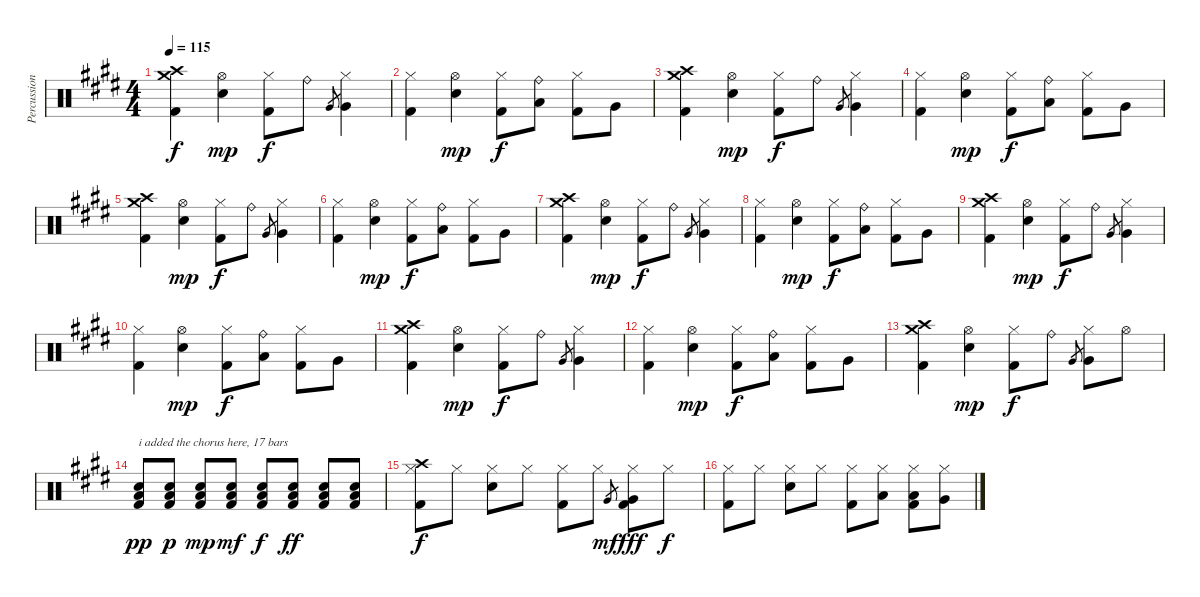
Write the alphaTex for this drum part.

\track ("Percussion" "Percussion") {instrument percussion}
\staff {score}
\articulation defaults
\ts (4 4)
\tempo 115
\clef neutral
\ks c#minor
("Crash high (hit)" "Crash medium (hit)" "Kick (hit) 2").4{dy f} ("Hi-Hat (open)" "Electric Snare (hit)").4{dy mp} ("Hi-Hat (closed)" "Kick (hit) 2").8{dy f} "Ride (bell)".8 "Very Low Tom (hit)".8{gr} ("Hi-Hat (closed)" "Very Low Tom (hit)").4 |
("Hi-Hat (closed)" "Kick (hit) 2").4 ("Hi-Hat (open)" "Electric Snare (hit)").4{dy mp} ("Hi-Hat (closed)" "Kick (hit) 2").8{dy f} ("Ride (bell)" "Low Tom (hit)").8 ("Hi-Hat (closed)" "Kick (hit) 2").8 "Very Low Tom (hit)".8 |
("Crash high (hit)" "Crash medium (hit)" "Kick (hit) 2").4 ("Hi-Hat (open)" "Electric Snare (hit)").4{dy mp} ("Hi-Hat (closed)" "Kick (hit) 2").8{dy f} "Ride (bell)".8 "Very Low Tom (hit)".8{gr} ("Hi-Hat (closed)" "Very Low Tom (hit)").4 |
("Hi-Hat (closed)" "Kick (hit) 2").4 ("Hi-Hat (open)" "Electric Snare (hit)").4{dy mp} ("Hi-Hat (closed)" "Kick (hit) 2").8{dy f} ("Ride (bell)" "Low Tom (hit)").8 ("Hi-Hat (closed)" "Kick (hit) 2").8 "Very Low Tom (hit)".8 |
("Crash high (hit)" "Crash medium (hit)" "Kick (hit) 2").4 ("Hi-Hat (open)" "Electric Snare (hit)").4{dy mp} ("Hi-Hat (closed)" "Kick (hit) 2").8{dy f} "Ride (bell)".8 "Very Low Tom (hit)".8{gr} ("Hi-Hat (closed)" "Very Low Tom (hit)").4 |
("Hi-Hat (closed)" "Kick (hit) 2").4 ("Hi-Hat (open)" "Electric Snare (hit)").4{dy mp} ("Hi-Hat (closed)" "Kick (hit) 2").8{dy f} ("Ride (bell)" "Low Tom (hit)").8 ("Hi-Hat (closed)" "Kick (hit) 2").8 "Very Low Tom (hit)".8 |
("Crash high (hit)" "Crash medium (hit)" "Kick (hit) 2").4 ("Hi-Hat (open)" "Electric Snare (hit)").4{dy mp} ("Hi-Hat (closed)" "Kick (hit) 2").8{dy f} "Ride (bell)".8 "Very Low Tom (hit)".8{gr} ("Hi-Hat (closed)" "Very Low Tom (hit)").4 |
("Hi-Hat (closed)" "Kick (hit) 2").4 ("Hi-Hat (open)" "Electric Snare (hit)").4{dy mp} ("Hi-Hat (closed)" "Kick (hit) 2").8{dy f} ("Ride (bell)" "Low Tom (hit)").8 ("Hi-Hat (closed)" "Kick (hit) 2").8 "Very Low Tom (hit)".8 |
("Crash high (hit)" "Crash medium (hit)" "Kick (hit) 2").4 ("Hi-Hat (open)" "Electric Snare (hit)").4{dy mp} ("Hi-Hat (closed)" "Kick (hit) 2").8{dy f} "Ride (bell)".8 "Very Low Tom (hit)".8{gr} ("Hi-Hat (closed)" "Very Low Tom (hit)").4 |
("Hi-Hat (closed)" "Kick (hit) 2").4 ("Hi-Hat (open)" "Electric Snare (hit)").4{dy mp} ("Hi-Hat (closed)" "Kick (hit) 2").8{dy f} ("Ride (bell)" "Low Tom (hit)").8 ("Hi-Hat (closed)" "Kick (hit) 2").8 "Very Low Tom (hit)".8 |
("Crash high (hit)" "Crash medium (hit)" "Kick (hit) 2").4 ("Hi-Hat (open)" "Electric Snare (hit)").4{dy mp} ("Hi-Hat (closed)" "Kick (hit) 2").8{dy f} "Ride (bell)".8 "Very Low Tom (hit)".8{gr} ("Hi-Hat (closed)" "Very Low Tom (hit)").4 |
("Hi-Hat (closed)" "Kick (hit) 2").4 ("Hi-Hat (open)" "Electric Snare (hit)").4{dy mp} ("Hi-Hat (closed)" "Kick (hit) 2").8{dy f} ("Ride (bell)" "Low Tom (hit)").8 ("Hi-Hat (closed)" "Kick (hit) 2").8 "Very Low Tom (hit)".8 |
("Crash high (hit)" "Crash medium (hit)" "Kick (hit) 2").4 ("Hi-Hat (open)" "Electric Snare (hit)").4{dy mp} ("Hi-Hat (closed)" "Kick (hit) 2").8{dy f} "Ride (bell)".8 "Very Low Tom (hit)".8{gr} ("Hi-Hat (closed)" "Very Low Tom (hit)").8 "Hi-Hat (open)".8 |
("Low Floor Tom (hit)" "Electric Snare (hit)" "Kick (hit) 2").8{txt "i added the chorus here, 17 bars" dy pp} ("Low Floor Tom (hit)" "Electric Snare (hit)" "Kick (hit) 2").8{dy p} ("Low Floor Tom (hit)" "Electric Snare (hit)" "Kick (hit) 2").8{dy mp} ("Low Floor Tom (hit)" "Electric Snare (hit)" "Kick (hit) 2").8{dy mf} ("Low Floor Tom (hit)" "Electric Snare (hit)" "Kick (hit) 2").8{dy f} ("Low Floor Tom (hit)" "Electric Snare (hit)" "Kick (hit) 2").8{dy ff} ("Low Floor Tom (hit)" "Electric Snare (hit)" "Kick (hit) 2").8 ("Low Floor Tom (hit)" "Electric Snare (hit)" "Kick (hit) 2").8 |
("Crash high (hit)" "Hi-Hat (closed)" "Kick (hit) 2").8{dy f} "Hi-Hat (closed)".8 ("Hi-Hat (closed)" "Electric Snare (hit)").8 "Hi-Hat (closed)".8 ("Hi-Hat (closed)" "Kick (hit) 2").8 "Hi-Hat (closed)".8 "Very Low Tom (hit)".8{gr dy mf} ("Hi-Hat (closed)" "Very Low Tom (hit)" "Kick (hit) 2").8{dy fff} "Hi-Hat (closed)".8{dy f} |
("Hi-Hat (closed)" "Kick (hit) 2").8 "Hi-Hat (closed)".8 ("Hi-Hat (closed)" "Electric Snare (hit)").8 "Hi-Hat (closed)".8 ("Hi-Hat (closed)" "Kick (hit) 2").8 ("Hi-Hat (closed)" "Low Tom (hit)").8 ("Hi-Hat (closed)" "Low Floor Tom (hit)" "Kick (hit) 2").8 ("Hi-Hat (closed)" "Very Low Tom (hit)").8
